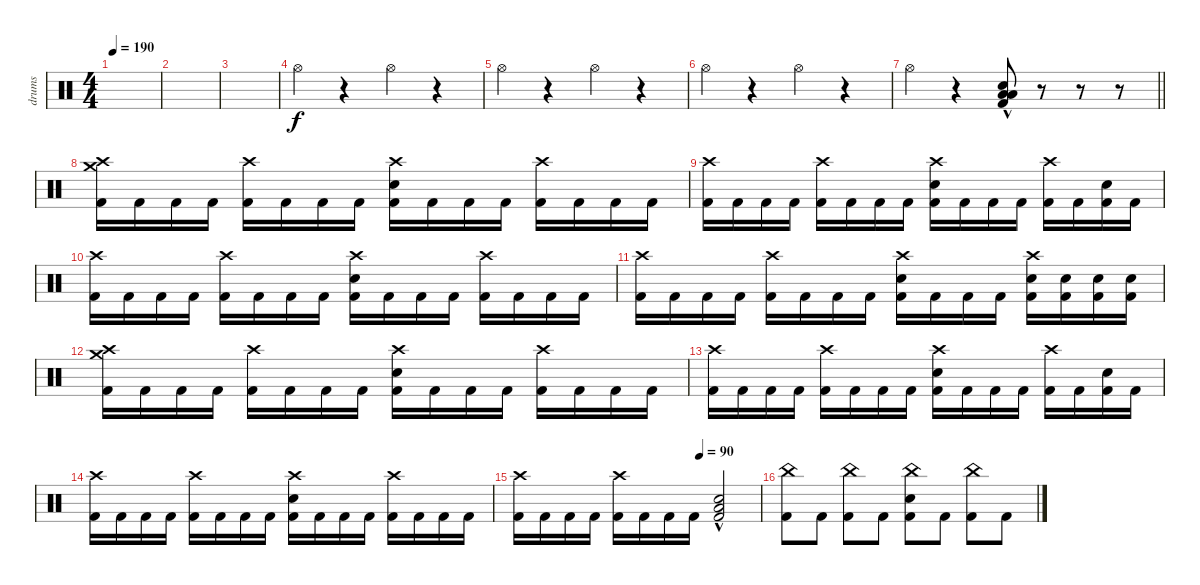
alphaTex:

\track ("drums" "drums") {instrument percussion}
\staff {score}
\articulation defaults
\ts (4 4)
\tempo 190
\clef neutral
\ks c
|
|
|
"Hi-Hat (open)".4 r.4 "Hi-Hat (open)".4 r.4 |
"Hi-Hat (open)".4 r.4 "Hi-Hat (open)".4 r.4 |
"Hi-Hat (open)".4 r.4 "Hi-Hat (open)".4 r.4 |
\barLineRight lightlight "Hi-Hat (open)".4
r.4 ("Electric Snare (hit)"{hac} "Low Floor Tom (hit)" "Low Floor Tom (hit)" "Kick (hit) 2").8 r.8 r.8 r.8 |
\section ("" "")
("Crash high (hit)" "Crash medium (hit)" "Kick (hit) 2").16 "Kick (hit) 2".16 "Kick (hit) 2".16 "Kick (hit) 2".16 ("Crash high (hit)" "Kick (hit) 2").16 "Kick (hit) 2".16 "Kick (hit) 2".16 "Kick (hit) 2".16 ("Crash high (hit)" "Electric Snare (hit)" "Kick (hit) 2").16 "Kick (hit) 2".16 "Kick (hit) 2".16 "Kick (hit) 2".16 ("Crash high (hit)" "Kick (hit) 2").16 "Kick (hit) 2".16 "Kick (hit) 2".16 "Kick (hit) 2".16 |
("Crash high (hit)" "Kick (hit) 2").16 "Kick (hit) 2".16 "Kick (hit) 2".16 "Kick (hit) 2".16 ("Crash high (hit)" "Kick (hit) 2").16 "Kick (hit) 2".16 "Kick (hit) 2".16 "Kick (hit) 2".16 ("Crash high (hit)" "Electric Snare (hit)" "Kick (hit) 2").16 "Kick (hit) 2".16 "Kick (hit) 2".16 "Kick (hit) 2".16 ("Crash high (hit)" "Kick (hit) 2").16 "Kick (hit) 2".16 ("Electric Snare (hit)" "Kick (hit) 2").16 "Kick (hit) 2".16 |
("Crash high (hit)" "Kick (hit) 2").16 "Kick (hit) 2".16 "Kick (hit) 2".16 "Kick (hit) 2".16 ("Crash high (hit)" "Kick (hit) 2").16 "Kick (hit) 2".16 "Kick (hit) 2".16 "Kick (hit) 2".16 ("Crash high (hit)" "Electric Snare (hit)" "Kick (hit) 2").16 "Kick (hit) 2".16 "Kick (hit) 2".16 "Kick (hit) 2".16 ("Crash high (hit)" "Kick (hit) 2").16 "Kick (hit) 2".16 "Kick (hit) 2".16 "Kick (hit) 2".16 |
("Crash high (hit)" "Kick (hit) 2").16 "Kick (hit) 2".16 "Kick (hit) 2".16 "Kick (hit) 2".16 ("Crash high (hit)" "Kick (hit) 2").16 "Kick (hit) 2".16 "Kick (hit) 2".16 "Kick (hit) 2".16 ("Crash high (hit)" "Electric Snare (hit)" "Kick (hit) 2").16 "Kick (hit) 2".16 "Kick (hit) 2".16 "Kick (hit) 2".16 ("Crash high (hit)" "Electric Snare (hit)" "Kick (hit) 2").16 ("Electric Snare (hit)" "Kick (hit) 2").16 ("Electric Snare (hit)" "Kick (hit) 2").16 ("Electric Snare (hit)" "Kick (hit) 2").16 |
("Crash high (hit)" "Crash medium (hit)" "Kick (hit) 2").16 "Kick (hit) 2".16 "Kick (hit) 2".16 "Kick (hit) 2".16 ("Crash high (hit)" "Kick (hit) 2").16 "Kick (hit) 2".16 "Kick (hit) 2".16 "Kick (hit) 2".16 ("Crash high (hit)" "Electric Snare (hit)" "Kick (hit) 2").16 "Kick (hit) 2".16 "Kick (hit) 2".16 "Kick (hit) 2".16 ("Crash high (hit)" "Kick (hit) 2").16 "Kick (hit) 2".16 "Kick (hit) 2".16 "Kick (hit) 2".16 |
("Crash high (hit)" "Kick (hit) 2").16 "Kick (hit) 2".16 "Kick (hit) 2".16 "Kick (hit) 2".16 ("Crash high (hit)" "Kick (hit) 2").16 "Kick (hit) 2".16 "Kick (hit) 2".16 "Kick (hit) 2".16 ("Crash high (hit)" "Electric Snare (hit)" "Kick (hit) 2").16 "Kick (hit) 2".16 "Kick (hit) 2".16 "Kick (hit) 2".16 ("Crash high (hit)" "Kick (hit) 2").16 "Kick (hit) 2".16 ("Electric Snare (hit)" "Kick (hit) 2").16 "Kick (hit) 2".16 |
("Crash high (hit)" "Kick (hit) 2").16 "Kick (hit) 2".16 "Kick (hit) 2".16 "Kick (hit) 2".16 ("Crash high (hit)" "Kick (hit) 2").16 "Kick (hit) 2".16 "Kick (hit) 2".16 "Kick (hit) 2".16 ("Crash high (hit)" "Electric Snare (hit)" "Kick (hit) 2").16 "Kick (hit) 2".16 "Kick (hit) 2".16 "Kick (hit) 2".16 ("Crash high (hit)" "Kick (hit) 2").16 "Kick (hit) 2".16 "Kick (hit) 2".16 "Kick (hit) 2".16 |
\tempo (90 0.75)
("Crash high (hit)" "Kick (hit) 2").16 "Kick (hit) 2".16 "Kick (hit) 2".16 "Kick (hit) 2".16 ("Crash high (hit)" "Kick (hit) 2").16 "Kick (hit) 2".16 "Kick (hit) 2".16 "Kick (hit) 2".16 ("Electric Snare (hit)"{hac} "Low Floor Tom (hit)" "Kick (hit) 2").2 |
("China (hit)" "Kick (hit) 2").8 "Kick (hit) 2".8 ("China (hit)" "Kick (hit) 2").8 "Kick (hit) 2".8 ("China (hit)" "Electric Snare (hit)" "Kick (hit) 2").8 "Kick (hit) 2".8 ("China (hit)" "Kick (hit) 2").8 "Kick (hit) 2".8
